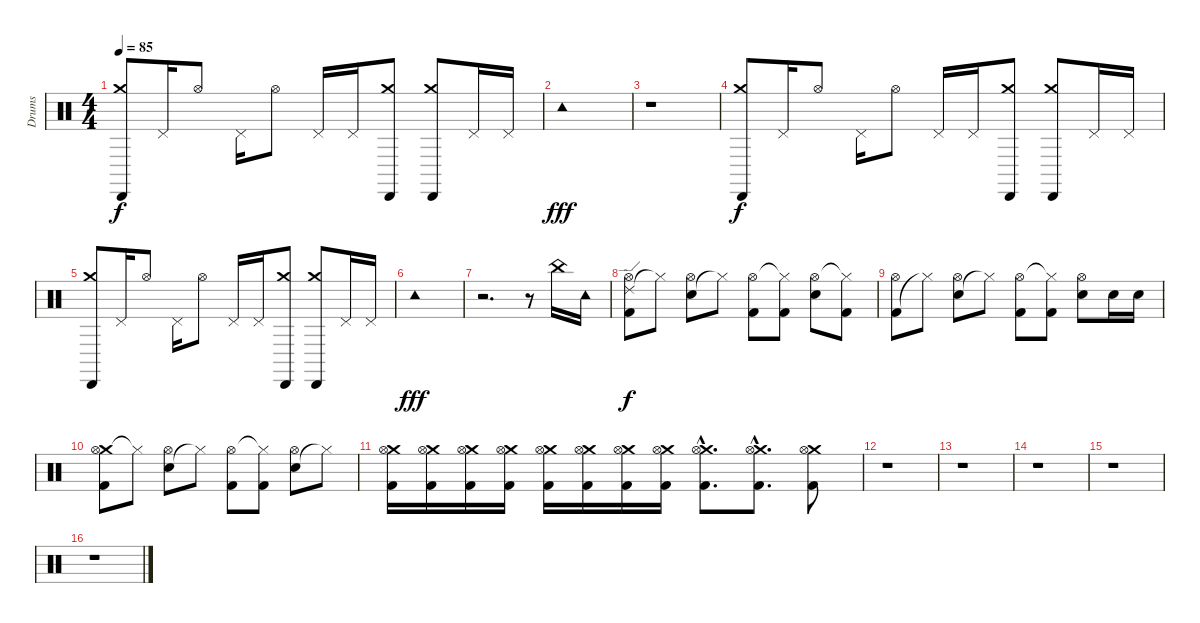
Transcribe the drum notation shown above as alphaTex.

\track ("Drums" "Drums") {instrument percussion}
\staff {score}
\articulation defaults
\ts (4 4)
\tempo 85
\clef neutral
\ks c
("Crash medium (hit)" "Cabasa (hit)").8{dy f} "Pedal Hi-Hat (hit)".16 "Hi-Hat (open)".8 "Pedal Hi-Hat (hit)".16 "Hi-Hat (open)".8 "Pedal Hi-Hat (hit)".16 "Pedal Hi-Hat (hit)".16 ("Crash medium (hit)" "Cabasa (hit)").8 ("Crash medium (hit)" "Cabasa (hit)").8 "Pedal Hi-Hat (hit)".16 "Pedal Hi-Hat (hit)".16 |
"Tambourine (hit)".1{dy fff} |
r.1 |
("Crash medium (hit)" "Cabasa (hit)").8{dy f} "Pedal Hi-Hat (hit)".16 "Hi-Hat (open)".8 "Pedal Hi-Hat (hit)".16 "Hi-Hat (open)".8 "Pedal Hi-Hat (hit)".16 "Pedal Hi-Hat (hit)".16 ("Crash medium (hit)" "Cabasa (hit)").8 ("Crash medium (hit)" "Cabasa (hit)").8 "Pedal Hi-Hat (hit)".16 "Pedal Hi-Hat (hit)".16 |
("Crash medium (hit)" "Cabasa (hit)").8 "Pedal Hi-Hat (hit)".16 "Hi-Hat (open)".8 "Pedal Hi-Hat (hit)".16 "Hi-Hat (open)".8 "Pedal Hi-Hat (hit)".16 "Pedal Hi-Hat (hit)".16 ("Crash medium (hit)" "Cabasa (hit)").8 ("Crash medium (hit)" "Cabasa (hit)").8 "Pedal Hi-Hat (hit)".16 "Pedal Hi-Hat (hit)".16 |
"Tambourine (hit)".1{dy fff} |
r.2{d} r.8 "China (hit)".16 "Tambourine (hit)".16 |
("Ride (edge) 2" "Kick (hit) 2" "Hi-Hat (open)").8{dy f} "Hi-Hat (closed)"{t}.8 ("Electric Snare (hit)" "Hi-Hat (open)").8 "Hi-Hat (closed)"{t}.8 ("Kick (hit) 2" "Hi-Hat (open)").8 ("Kick (hit) 2" "Hi-Hat (closed)"{t}).8 ("Electric Snare (hit)" "Hi-Hat (open)").8 ("Kick (hit) 2" "Hi-Hat (closed)"{t}).8 |
("Kick (hit) 2" "Hi-Hat (open)").8 "Hi-Hat (closed)"{t}.8 ("Electric Snare (hit)" "Hi-Hat (open)").8 "Hi-Hat (closed)"{t}.8 ("Kick (hit) 2" "Hi-Hat (open)").8 ("Kick (hit) 2" "Hi-Hat (closed)"{t}).8 ("Electric Snare (hit)" "Hi-Hat (open)").8 "Electric Snare (hit)".16 "Electric Snare (hit)".16 |
("Crash medium (hit)" "Kick (hit) 2" "Hi-Hat (open)").8 "Hi-Hat (closed)"{t}.8 ("Electric Snare (hit)" "Hi-Hat (open)").8 "Hi-Hat (closed)"{t}.8 ("Kick (hit) 2" "Hi-Hat (open)").8 ("Kick (hit) 2" "Hi-Hat (closed)"{t}).8 ("Electric Snare (hit)" "Hi-Hat (open)").8 "Hi-Hat (closed)"{t}.8 |
("Crash medium (hit)" "Kick (hit) 2" "Hi-Hat (open)").16 ("Crash medium (hit)" "Kick (hit) 2" "Hi-Hat (open)").16 ("Crash medium (hit)" "Kick (hit) 2" "Hi-Hat (open)").16 ("Crash medium (hit)" "Kick (hit) 2" "Hi-Hat (open)").16 ("Crash medium (hit)" "Kick (hit) 2" "Hi-Hat (open)").16 ("Crash medium (hit)" "Kick (hit) 2" "Hi-Hat (open)").16 ("Crash medium (hit)" "Kick (hit) 2" "Hi-Hat (open)").16 ("Crash medium (hit)" "Kick (hit) 2" "Hi-Hat (open)").16 ("Crash medium (hit)"{hac} "Kick (hit) 2"{hac} "Hi-Hat (open)"{hac}).8{d} ("Crash medium (hit)"{hac} "Kick (hit) 2"{hac} "Hi-Hat (open)"{hac}).8{d} ("Crash medium (hit)" "Kick (hit) 2" "Hi-Hat (open)").8 |
r.1 |
r.1 |
r.1 |
r.1 |
r.1
